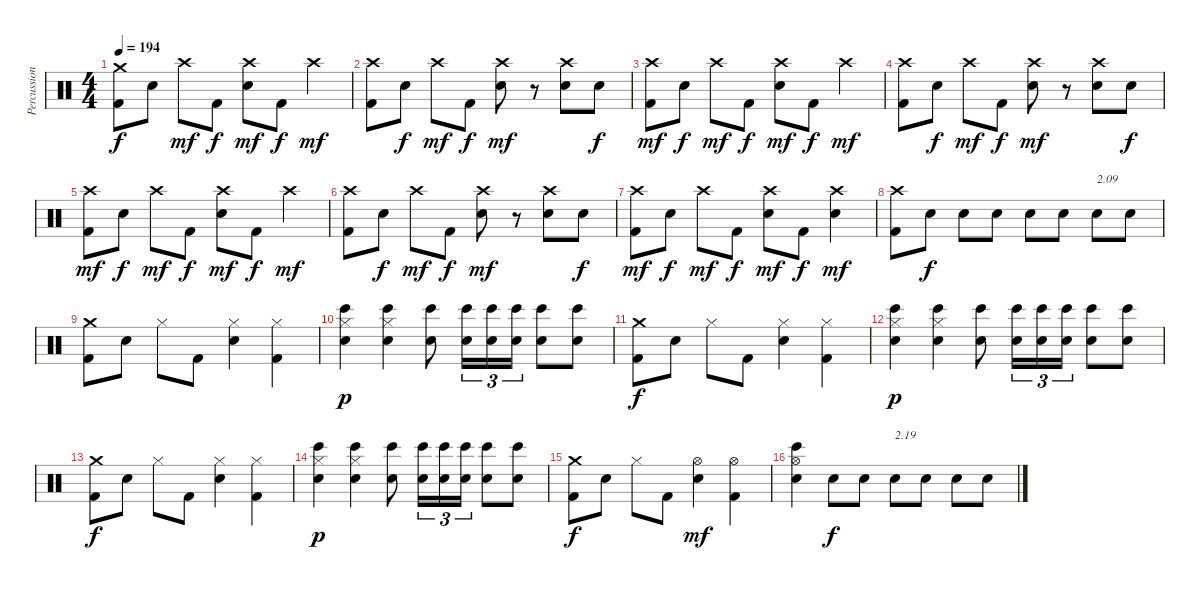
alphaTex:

\track ("Percussions" "Percussion") {instrument percussion}
\staff {score}
\articulation defaults
\ts (4 4)
\tempo 194
\clef neutral
\ks c
("Kick (hit) 2" "Crash medium (hit)").8{dy f} "Electric Snare (hit)".8 "Crash high (hit)".8{dy mf} "Kick (hit) 2".8{dy f} ("Electric Snare (hit)" "Crash high (hit)").8{dy mf} "Kick (hit) 2".8{dy f} "Crash high (hit)".4{dy mf} |
("Kick (hit) 2" "Crash high (hit)").8 "Electric Snare (hit)".8{dy f} "Crash high (hit)".8{dy mf} "Kick (hit) 2".8{dy f} ("Electric Snare (hit)" "Crash high (hit)").8{dy mf} r.8 ("Electric Snare (hit)" "Crash high (hit)").8 "Electric Snare (hit)".8{dy f} |
("Kick (hit) 2" "Crash high (hit)").8{dy mf} "Electric Snare (hit)".8{dy f} "Crash high (hit)".8{dy mf} "Kick (hit) 2".8{dy f} ("Electric Snare (hit)" "Crash high (hit)").8{dy mf} "Kick (hit) 2".8{dy f} "Crash high (hit)".4{dy mf} |
("Kick (hit) 2" "Crash high (hit)").8 "Electric Snare (hit)".8{dy f} "Crash high (hit)".8{dy mf} "Kick (hit) 2".8{dy f} ("Electric Snare (hit)" "Crash high (hit)").8{dy mf} r.8 ("Electric Snare (hit)" "Crash high (hit)").8 "Electric Snare (hit)".8{dy f} |
("Kick (hit) 2" "Crash high (hit)").8{dy mf} "Electric Snare (hit)".8{dy f} "Crash high (hit)".8{dy mf} "Kick (hit) 2".8{dy f} ("Electric Snare (hit)" "Crash high (hit)").8{dy mf} "Kick (hit) 2".8{dy f} "Crash high (hit)".4{dy mf} |
("Kick (hit) 2" "Crash high (hit)").8 "Electric Snare (hit)".8{dy f} "Crash high (hit)".8{dy mf} "Kick (hit) 2".8{dy f} ("Electric Snare (hit)" "Crash high (hit)").8{dy mf} r.8 ("Electric Snare (hit)" "Crash high (hit)").8 "Electric Snare (hit)".8{dy f} |
("Kick (hit) 2" "Crash high (hit)").8{dy mf} "Electric Snare (hit)".8{dy f} "Crash high (hit)".8{dy mf} "Kick (hit) 2".8{dy f} ("Electric Snare (hit)" "Crash high (hit)").8{dy mf} "Kick (hit) 2".8{dy f} ("Electric Snare (hit)" "Crash high (hit)").4{dy mf} |
("Kick (hit) 2" "Crash high (hit)").8 "Electric Snare (hit)".8{dy f} "Electric Snare (hit)".8 "Electric Snare (hit)".8 "Electric Snare (hit)".8 "Electric Snare (hit)".8 "Electric Snare (hit)".8{txt "2.09"} "Electric Snare (hit)".8 |
("Kick (hit) 2" "Crash medium (hit)").8 "Electric Snare (hit)".8 "Hi-Hat (closed)".8 "Kick (hit) 2".8 ("Electric Snare (hit)" "Hi-Hat (closed)").4 ("Kick (hit) 2" "Hi-Hat (closed)").4 |
("Bongo High (hit)" "Electric Snare (hit)" "Hi-Hat (closed)").4{dy p} ("Bongo High (hit)" "Electric Snare (hit)" "Hi-Hat (closed)").4 ("Bongo High (hit)" "Electric Snare (hit)").8 ("Bongo High (hit)" "Electric Snare (hit)").16{tu (3 2)} ("Bongo High (hit)" "Electric Snare (hit)").16{tu (3 2)} ("Bongo High (hit)" "Electric Snare (hit)").16{tu (3 2)} ("Bongo High (hit)" "Electric Snare (hit)").8 ("Bongo High (hit)" "Electric Snare (hit)").8 |
("Kick (hit) 2" "Crash medium (hit)").8{dy f} "Electric Snare (hit)".8 "Hi-Hat (closed)".8 "Kick (hit) 2".8 ("Electric Snare (hit)" "Hi-Hat (closed)").4 ("Kick (hit) 2" "Hi-Hat (closed)").4 |
("Bongo High (hit)" "Electric Snare (hit)" "Hi-Hat (closed)").4{dy p} ("Bongo High (hit)" "Electric Snare (hit)" "Hi-Hat (closed)").4 ("Bongo High (hit)" "Electric Snare (hit)").8 ("Bongo High (hit)" "Electric Snare (hit)").16{tu (3 2)} ("Bongo High (hit)" "Electric Snare (hit)").16{tu (3 2)} ("Bongo High (hit)" "Electric Snare (hit)").16{tu (3 2)} ("Bongo High (hit)" "Electric Snare (hit)").8 ("Bongo High (hit)" "Electric Snare (hit)").8 |
("Kick (hit) 2" "Crash medium (hit)").8{dy f} "Electric Snare (hit)".8 "Hi-Hat (closed)".8 "Kick (hit) 2".8 ("Electric Snare (hit)" "Hi-Hat (closed)").4 ("Kick (hit) 2" "Hi-Hat (closed)").4 |
("Bongo High (hit)" "Electric Snare (hit)" "Hi-Hat (closed)").4{dy p} ("Bongo High (hit)" "Electric Snare (hit)" "Hi-Hat (closed)").4 ("Bongo High (hit)" "Electric Snare (hit)").8 ("Bongo High (hit)" "Electric Snare (hit)").16{tu (3 2)} ("Bongo High (hit)" "Electric Snare (hit)").16{tu (3 2)} ("Bongo High (hit)" "Electric Snare (hit)").16{tu (3 2)} ("Bongo High (hit)" "Electric Snare (hit)").8 ("Bongo High (hit)" "Electric Snare (hit)").8 |
("Kick (hit) 2" "Crash medium (hit)").8{dy f} "Electric Snare (hit)".8 "Hi-Hat (closed)".8 "Kick (hit) 2".8 ("Electric Snare (hit)" "Hi-Hat (open)").4{dy mf} ("Kick (hit) 2" "Hi-Hat (open)").4 |
("Bongo High (hit)" "Electric Snare (hit)" "Hi-Hat (open)").4 "Electric Snare (hit)".8{dy f} "Electric Snare (hit)".8 "Electric Snare (hit)".8{txt "2.19"} "Electric Snare (hit)".8 "Electric Snare (hit)".8 "Electric Snare (hit)".8
